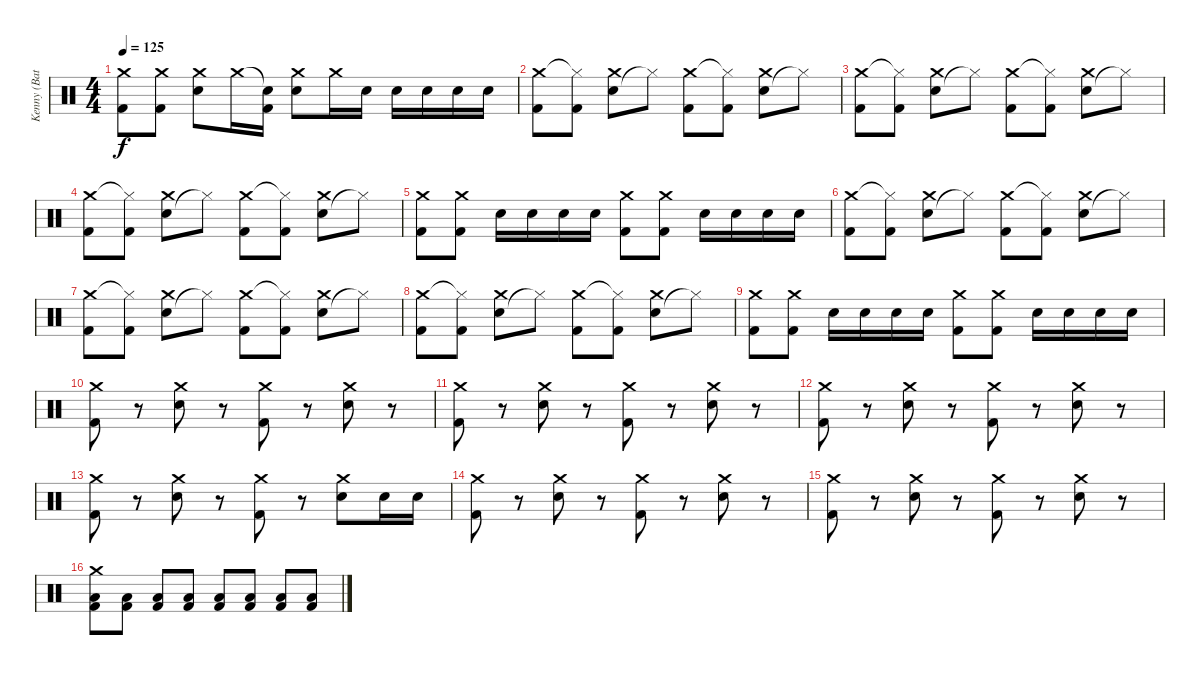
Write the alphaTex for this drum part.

\track ("Kenny (Batterie)" "Kenny (Bat") {instrument percussion}
\staff {score}
\articulation defaults
\ts (4 4)
\tempo 125
\clef neutral
\ks c
("Crash medium (hit)" "Kick (hit) 2").8{dy f} ("Crash medium (hit)" "Kick (hit) 2").8 ("Crash medium (hit)" "Electric Snare (hit)").8 "Crash medium (hit)".16 ("Snare (hit)"{t} "Kick (hit) 2").16 ("Crash medium (hit)" "Electric Snare (hit)").8 "Crash medium (hit)".16 "Electric Snare (hit)".16 "Electric Snare (hit)".16 "Electric Snare (hit)".16 "Electric Snare (hit)".16 "Electric Snare (hit)".16 |
("Kick (hit) 2" "Crash medium (hit)").8 ("Kick (hit) 2" "Hi-Hat (closed)"{t}).8 ("Electric Snare (hit)" "Crash medium (hit)").8 "Hi-Hat (closed)"{t}.8 ("Kick (hit) 2" "Crash medium (hit)").8 ("Kick (hit) 2" "Hi-Hat (closed)"{t}).8 ("Electric Snare (hit)" "Crash medium (hit)").8 "Hi-Hat (closed)"{t}.8 |
("Kick (hit) 2" "Crash medium (hit)").8 ("Kick (hit) 2" "Hi-Hat (closed)"{t}).8 ("Electric Snare (hit)" "Crash medium (hit)").8 "Hi-Hat (closed)"{t}.8 ("Kick (hit) 2" "Crash medium (hit)").8 ("Kick (hit) 2" "Hi-Hat (closed)"{t}).8 ("Electric Snare (hit)" "Crash medium (hit)").8 "Hi-Hat (closed)"{t}.8 |
("Kick (hit) 2" "Crash medium (hit)").8 ("Kick (hit) 2" "Hi-Hat (closed)"{t}).8 ("Electric Snare (hit)" "Crash medium (hit)").8 "Hi-Hat (closed)"{t}.8 ("Kick (hit) 2" "Crash medium (hit)").8 ("Kick (hit) 2" "Hi-Hat (closed)"{t}).8 ("Electric Snare (hit)" "Crash medium (hit)").8 "Hi-Hat (closed)"{t}.8 |
("Crash medium (hit)" "Kick (hit) 2").8 ("Crash medium (hit)" "Kick (hit) 2").8 "Electric Snare (hit)".16 "Electric Snare (hit)".16 "Electric Snare (hit)".16 "Electric Snare (hit)".16 ("Crash medium (hit)" "Kick (hit) 2").8 ("Crash medium (hit)" "Kick (hit) 2").8 "Electric Snare (hit)".16 "Electric Snare (hit)".16 "Electric Snare (hit)".16 "Electric Snare (hit)".16 |
("Kick (hit) 2" "Crash medium (hit)").8 ("Kick (hit) 2" "Hi-Hat (closed)"{t}).8 ("Electric Snare (hit)" "Crash medium (hit)").8 "Hi-Hat (closed)"{t}.8 ("Kick (hit) 2" "Crash medium (hit)").8 ("Kick (hit) 2" "Hi-Hat (closed)"{t}).8 ("Electric Snare (hit)" "Crash medium (hit)").8 "Hi-Hat (closed)"{t}.8 |
("Kick (hit) 2" "Crash medium (hit)").8 ("Kick (hit) 2" "Hi-Hat (closed)"{t}).8 ("Electric Snare (hit)" "Crash medium (hit)").8 "Hi-Hat (closed)"{t}.8 ("Kick (hit) 2" "Crash medium (hit)").8 ("Kick (hit) 2" "Hi-Hat (closed)"{t}).8 ("Electric Snare (hit)" "Crash medium (hit)").8 "Hi-Hat (closed)"{t}.8 |
("Kick (hit) 2" "Crash medium (hit)").8 ("Kick (hit) 2" "Hi-Hat (closed)"{t}).8 ("Electric Snare (hit)" "Crash medium (hit)").8 "Hi-Hat (closed)"{t}.8 ("Kick (hit) 2" "Crash medium (hit)").8 ("Kick (hit) 2" "Hi-Hat (closed)"{t}).8 ("Electric Snare (hit)" "Crash medium (hit)").8 "Hi-Hat (closed)"{t}.8 |
("Crash medium (hit)" "Kick (hit) 2").8 ("Crash medium (hit)" "Kick (hit) 2").8 "Electric Snare (hit)".16 "Electric Snare (hit)".16 "Electric Snare (hit)".16 "Electric Snare (hit)".16 ("Crash medium (hit)" "Kick (hit) 2").8 ("Crash medium (hit)" "Kick (hit) 2").8 "Electric Snare (hit)".16 "Electric Snare (hit)".16 "Electric Snare (hit)".16 "Electric Snare (hit)".16 |
("Crash medium (hit)" "Kick (hit) 2").8 r.8 ("Crash medium (hit)" "Electric Snare (hit)").8 r.8 ("Crash medium (hit)" "Kick (hit) 2").8 r.8 ("Crash medium (hit)" "Electric Snare (hit)").8 r.8 |
("Crash medium (hit)" "Kick (hit) 2").8 r.8 ("Crash medium (hit)" "Electric Snare (hit)").8 r.8 ("Crash medium (hit)" "Kick (hit) 2").8 r.8 ("Crash medium (hit)" "Electric Snare (hit)").8 r.8 |
("Crash medium (hit)" "Kick (hit) 2").8 r.8 ("Crash medium (hit)" "Electric Snare (hit)").8 r.8 ("Crash medium (hit)" "Kick (hit) 2").8 r.8 ("Crash medium (hit)" "Electric Snare (hit)").8 r.8 |
("Crash medium (hit)" "Kick (hit) 2").8 r.8 ("Crash medium (hit)" "Electric Snare (hit)").8 r.8 ("Crash medium (hit)" "Kick (hit) 2").8 r.8 ("Crash medium (hit)" "Electric Snare (hit)").8 "Electric Snare (hit)".16 "Electric Snare (hit)".16 |
("Crash medium (hit)" "Kick (hit) 2").8 r.8 ("Crash medium (hit)" "Electric Snare (hit)").8 r.8 ("Crash medium (hit)" "Kick (hit) 2").8 r.8 ("Crash medium (hit)" "Electric Snare (hit)").8 r.8 |
("Crash medium (hit)" "Kick (hit) 2").8 r.8 ("Crash medium (hit)" "Electric Snare (hit)").8 r.8 ("Crash medium (hit)" "Kick (hit) 2").8 r.8 ("Crash medium (hit)" "Electric Snare (hit)").8 r.8 |
("Kick (hit) 2" "Low Floor Tom (hit)" "Crash medium (hit)").8 ("Kick (hit) 2" "Low Floor Tom (hit)").8 ("Kick (hit) 2" "Low Floor Tom (hit)").8 ("Kick (hit) 2" "Low Floor Tom (hit)").8 ("Kick (hit) 2" "Low Floor Tom (hit)").8 ("Kick (hit) 2" "Low Floor Tom (hit)").8 ("Kick (hit) 2" "Low Floor Tom (hit)").8 ("Kick (hit) 2" "Low Floor Tom (hit)").8
